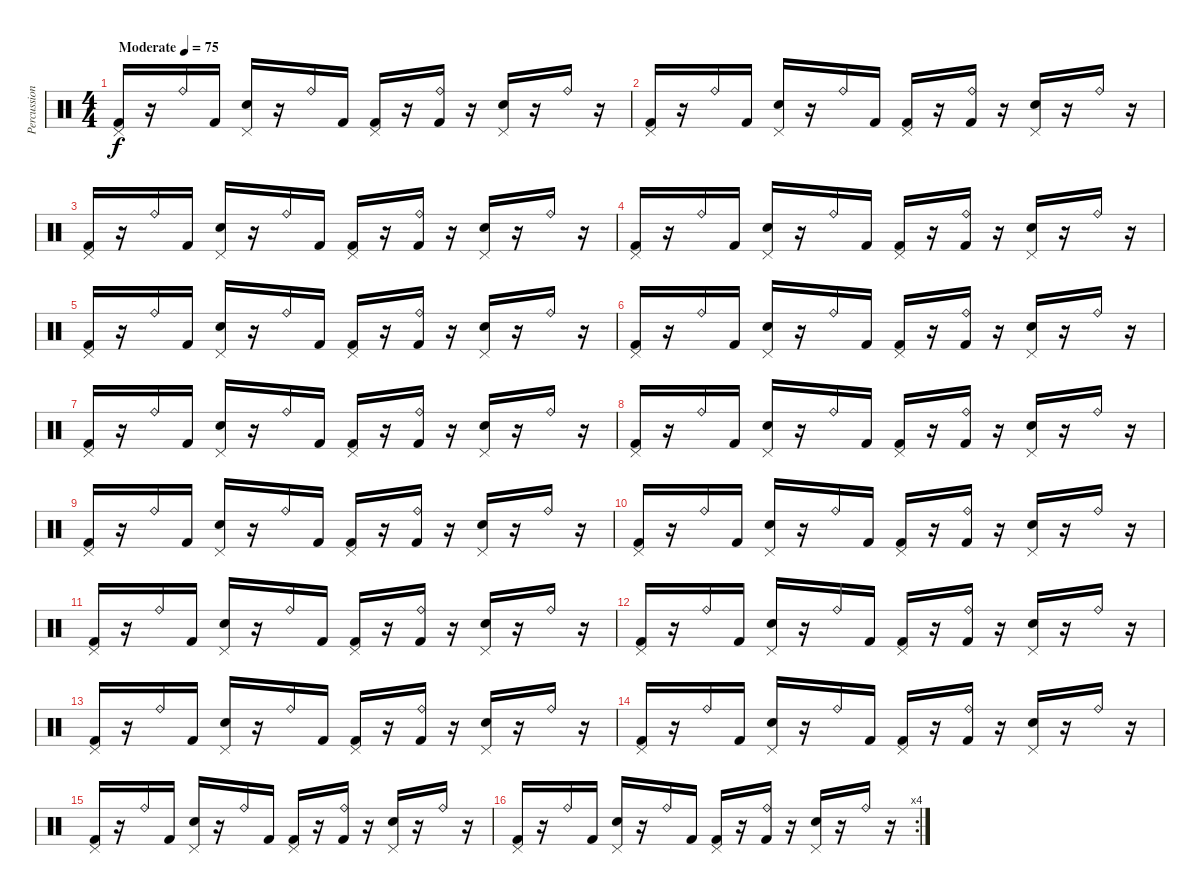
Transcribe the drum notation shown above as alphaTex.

\track ("Percussion" "Percussion") {instrument percussion}
\staff {score}
\articulation defaults
\ts (4 4)
\tempo (75 "Moderate")
\clef neutral
\ks c
("Pedal Hi-Hat (hit)" "Kick (hit) 2").16{dy f} r.16 "Ride (bell)".16 "Kick (hit) 2".16 ("Electric Snare (hit)" "Pedal Hi-Hat (hit)").16 r.16 "Ride (bell)".16 "Kick (hit) 2".16 ("Pedal Hi-Hat (hit)" "Kick (hit) 2").16 r.16 ("Ride (bell)" "Kick (hit) 2").16 r.16 ("Electric Snare (hit)" "Pedal Hi-Hat (hit)").16 r.16 "Ride (bell)".16 r.16 |
("Pedal Hi-Hat (hit)" "Kick (hit) 2").16 r.16 "Ride (bell)".16 "Kick (hit) 2".16 ("Electric Snare (hit)" "Pedal Hi-Hat (hit)").16 r.16 "Ride (bell)".16 "Kick (hit) 2".16 ("Pedal Hi-Hat (hit)" "Kick (hit) 2").16 r.16 ("Ride (bell)" "Kick (hit) 2").16 r.16 ("Electric Snare (hit)" "Pedal Hi-Hat (hit)").16 r.16 "Ride (bell)".16 r.16 |
("Pedal Hi-Hat (hit)" "Kick (hit) 2").16 r.16 "Ride (bell)".16 "Kick (hit) 2".16 ("Electric Snare (hit)" "Pedal Hi-Hat (hit)").16 r.16 "Ride (bell)".16 "Kick (hit) 2".16 ("Pedal Hi-Hat (hit)" "Kick (hit) 2").16 r.16 ("Ride (bell)" "Kick (hit) 2").16 r.16 ("Electric Snare (hit)" "Pedal Hi-Hat (hit)").16 r.16 "Ride (bell)".16 r.16 |
("Pedal Hi-Hat (hit)" "Kick (hit) 2").16 r.16 "Ride (bell)".16 "Kick (hit) 2".16 ("Electric Snare (hit)" "Pedal Hi-Hat (hit)").16 r.16 "Ride (bell)".16 "Kick (hit) 2".16 ("Pedal Hi-Hat (hit)" "Kick (hit) 2").16 r.16 ("Ride (bell)" "Kick (hit) 2").16 r.16 ("Electric Snare (hit)" "Pedal Hi-Hat (hit)").16 r.16 "Ride (bell)".16 r.16 |
("Pedal Hi-Hat (hit)" "Kick (hit) 2").16 r.16 "Ride (bell)".16 "Kick (hit) 2".16 ("Electric Snare (hit)" "Pedal Hi-Hat (hit)").16 r.16 "Ride (bell)".16 "Kick (hit) 2".16 ("Pedal Hi-Hat (hit)" "Kick (hit) 2").16 r.16 ("Ride (bell)" "Kick (hit) 2").16 r.16 ("Electric Snare (hit)" "Pedal Hi-Hat (hit)").16 r.16 "Ride (bell)".16 r.16 |
("Pedal Hi-Hat (hit)" "Kick (hit) 2").16 r.16 "Ride (bell)".16 "Kick (hit) 2".16 ("Electric Snare (hit)" "Pedal Hi-Hat (hit)").16 r.16 "Ride (bell)".16 "Kick (hit) 2".16 ("Pedal Hi-Hat (hit)" "Kick (hit) 2").16 r.16 ("Ride (bell)" "Kick (hit) 2").16 r.16 ("Electric Snare (hit)" "Pedal Hi-Hat (hit)").16 r.16 "Ride (bell)".16 r.16 |
("Pedal Hi-Hat (hit)" "Kick (hit) 2").16 r.16 "Ride (bell)".16 "Kick (hit) 2".16 ("Electric Snare (hit)" "Pedal Hi-Hat (hit)").16 r.16 "Ride (bell)".16 "Kick (hit) 2".16 ("Pedal Hi-Hat (hit)" "Kick (hit) 2").16 r.16 ("Ride (bell)" "Kick (hit) 2").16 r.16 ("Electric Snare (hit)" "Pedal Hi-Hat (hit)").16 r.16 "Ride (bell)".16 r.16 |
("Pedal Hi-Hat (hit)" "Kick (hit) 2").16 r.16 "Ride (bell)".16 "Kick (hit) 2".16 ("Electric Snare (hit)" "Pedal Hi-Hat (hit)").16 r.16 "Ride (bell)".16 "Kick (hit) 2".16 ("Pedal Hi-Hat (hit)" "Kick (hit) 2").16 r.16 ("Ride (bell)" "Kick (hit) 2").16 r.16 ("Electric Snare (hit)" "Pedal Hi-Hat (hit)").16 r.16 "Ride (bell)".16 r.16 |
("Pedal Hi-Hat (hit)" "Kick (hit) 2").16 r.16 "Ride (bell)".16 "Kick (hit) 2".16 ("Electric Snare (hit)" "Pedal Hi-Hat (hit)").16 r.16 "Ride (bell)".16 "Kick (hit) 2".16 ("Pedal Hi-Hat (hit)" "Kick (hit) 2").16 r.16 ("Ride (bell)" "Kick (hit) 2").16 r.16 ("Electric Snare (hit)" "Pedal Hi-Hat (hit)").16 r.16 "Ride (bell)".16 r.16 |
("Pedal Hi-Hat (hit)" "Kick (hit) 2").16 r.16 "Ride (bell)".16 "Kick (hit) 2".16 ("Electric Snare (hit)" "Pedal Hi-Hat (hit)").16 r.16 "Ride (bell)".16 "Kick (hit) 2".16 ("Pedal Hi-Hat (hit)" "Kick (hit) 2").16 r.16 ("Ride (bell)" "Kick (hit) 2").16 r.16 ("Electric Snare (hit)" "Pedal Hi-Hat (hit)").16 r.16 "Ride (bell)".16 r.16 |
("Pedal Hi-Hat (hit)" "Kick (hit) 2").16 r.16 "Ride (bell)".16 "Kick (hit) 2".16 ("Electric Snare (hit)" "Pedal Hi-Hat (hit)").16 r.16 "Ride (bell)".16 "Kick (hit) 2".16 ("Pedal Hi-Hat (hit)" "Kick (hit) 2").16 r.16 ("Ride (bell)" "Kick (hit) 2").16 r.16 ("Electric Snare (hit)" "Pedal Hi-Hat (hit)").16 r.16 "Ride (bell)".16 r.16 |
("Pedal Hi-Hat (hit)" "Kick (hit) 2").16 r.16 "Ride (bell)".16 "Kick (hit) 2".16 ("Electric Snare (hit)" "Pedal Hi-Hat (hit)").16 r.16 "Ride (bell)".16 "Kick (hit) 2".16 ("Pedal Hi-Hat (hit)" "Kick (hit) 2").16 r.16 ("Ride (bell)" "Kick (hit) 2").16 r.16 ("Electric Snare (hit)" "Pedal Hi-Hat (hit)").16 r.16 "Ride (bell)".16 r.16 |
("Pedal Hi-Hat (hit)" "Kick (hit) 2").16 r.16 "Ride (bell)".16 "Kick (hit) 2".16 ("Electric Snare (hit)" "Pedal Hi-Hat (hit)").16 r.16 "Ride (bell)".16 "Kick (hit) 2".16 ("Pedal Hi-Hat (hit)" "Kick (hit) 2").16 r.16 ("Ride (bell)" "Kick (hit) 2").16 r.16 ("Electric Snare (hit)" "Pedal Hi-Hat (hit)").16 r.16 "Ride (bell)".16 r.16 |
("Pedal Hi-Hat (hit)" "Kick (hit) 2").16 r.16 "Ride (bell)".16 "Kick (hit) 2".16 ("Electric Snare (hit)" "Pedal Hi-Hat (hit)").16 r.16 "Ride (bell)".16 "Kick (hit) 2".16 ("Pedal Hi-Hat (hit)" "Kick (hit) 2").16 r.16 ("Ride (bell)" "Kick (hit) 2").16 r.16 ("Electric Snare (hit)" "Pedal Hi-Hat (hit)").16 r.16 "Ride (bell)".16 r.16 |
("Pedal Hi-Hat (hit)" "Kick (hit) 2").16 r.16 "Ride (bell)".16 "Kick (hit) 2".16 ("Electric Snare (hit)" "Pedal Hi-Hat (hit)").16 r.16 "Ride (bell)".16 "Kick (hit) 2".16 ("Pedal Hi-Hat (hit)" "Kick (hit) 2").16 r.16 ("Ride (bell)" "Kick (hit) 2").16 r.16 ("Electric Snare (hit)" "Pedal Hi-Hat (hit)").16 r.16 "Ride (bell)".16 r.16 |
\rc 4
("Pedal Hi-Hat (hit)" "Kick (hit) 2").16 r.16 "Ride (bell)".16 "Kick (hit) 2".16 ("Electric Snare (hit)" "Pedal Hi-Hat (hit)").16 r.16 "Ride (bell)".16 "Kick (hit) 2".16 ("Pedal Hi-Hat (hit)" "Kick (hit) 2").16 r.16 ("Ride (bell)" "Kick (hit) 2").16 r.16 ("Electric Snare (hit)" "Pedal Hi-Hat (hit)").16 r.16 "Ride (bell)".16 r.16
